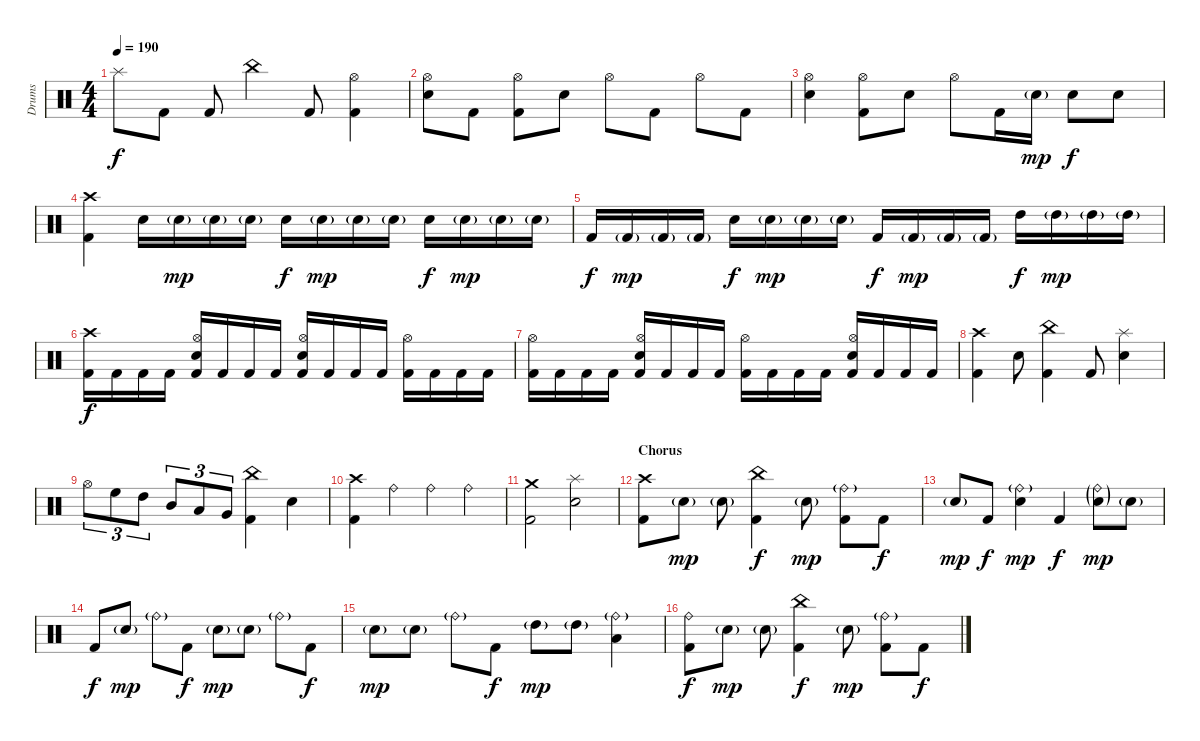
\track ("Drums" "Drums") {instrument percussion}
\staff {score}
\articulation defaults
\ts (4 4)
\tempo 190
\clef neutral
\ks c "Splash (hit)".8{dy f} "Kick (hit) 2".8 "Kick (hit) 2".8 "China (hit)".4 "Kick (hit) 2".8
("Hi-Hat (open)" "Kick (hit) 2").4 |
("Hi-Hat (open)" "Snare (hit) 2").8 "Kick (hit) 2".8 ("Hi-Hat (open)" "Kick (hit) 2").8 "Snare (hit) 2".8 "Hi-Hat (open)".8 "Kick (hit) 2".8 "Hi-Hat (open)".8 "Kick (hit) 2".8 |
("Hi-Hat (open)" "Snare (hit) 2").4 ("Hi-Hat (open)" "Kick (hit) 2").8 "Snare (hit) 2".8 "Hi-Hat (open)".8 "Kick (hit) 2".16 "Snare (hit) 2"{g}.16{dy mp} "Snare (hit) 2".8{dy f} "Snare (hit) 2".8 |
("Crash high (hit)" "Kick (hit) 2").4 "Snare (hit) 2".16 "Snare (hit) 2"{g}.16{dy mp} "Snare (hit) 2"{g}.16 "Snare (hit) 2"{g}.16 "Snare (hit) 2".16{dy f} "Snare (hit) 2"{g}.16{dy mp} "Snare (hit) 2"{g}.16 "Snare (hit) 2"{g}.16 "Snare (hit) 2".16{dy f} "Snare (hit) 2"{g}.16{dy mp} "Snare (hit) 2"{g}.16 "Snare (hit) 2"{g}.16 |
"Kick (hit) 2".16{dy f} "Kick (hit) 2"{g}.16{dy mp} "Kick (hit) 2"{g}.16 "Kick (hit) 2"{g}.16 "Snare (hit) 2".16{dy f} "Snare (hit) 2"{g}.16{dy mp} "Snare (hit) 2"{g}.16 "Snare (hit) 2"{g}.16 "Kick (hit) 2".16{dy f} "Kick (hit) 2"{g}.16{dy mp} "Kick (hit) 2"{g}.16 "Kick (hit) 2"{g}.16 "High Tom (hit)".16{dy f} "High Tom (hit)"{g}.16{dy mp} "High Tom (hit)"{g}.16 "High Tom (hit)"{g}.16 |
("Crash high (hit)" "Kick (hit) 2").16{dy f} "Kick (hit) 2".16 "Kick (hit) 2".16 "Kick (hit) 2".16 ("Hi-Hat (open)" "Snare (hit) 2" "Kick (hit) 2").16 "Kick (hit) 2".16 "Kick (hit) 2".16 "Kick (hit) 2".16 ("Hi-Hat (open)" "Snare (hit) 2" "Kick (hit) 2").16 "Kick (hit) 2".16 "Kick (hit) 2".16 "Kick (hit) 2".16 ("Hi-Hat (open)" "Kick (hit) 2").16 "Kick (hit) 2".16 "Kick (hit) 2".16 "Kick (hit) 2".16 |
("Hi-Hat (open)" "Kick (hit) 2").16 "Kick (hit) 2".16 "Kick (hit) 2".16 "Kick (hit) 2".16 ("Hi-Hat (open)" "Snare (hit) 2" "Kick (hit) 2").16 "Kick (hit) 2".16 "Kick (hit) 2".16 "Kick (hit) 2".16 ("Hi-Hat (open)" "Kick (hit) 2").16 "Kick (hit) 2".16 "Kick (hit) 2".16 "Kick (hit) 2".16 ("Hi-Hat (open)" "Snare (hit) 2" "Kick (hit) 2").16 "Kick (hit) 2".16 "Kick (hit) 2".16 "Kick (hit) 2".16 |
("Crash high (hit)" "Kick (hit) 2").4 "Snare (hit) 2".8 ("China (hit)" "Kick (hit) 2").4 "Kick (hit) 2".8 ("Splash (hit)" "Snare (hit) 2").4 |
"Hi-Hat (open)".8{tu (3 2)} "High Floor Tom (hit)".8{tu (3 2)} "High Tom (hit)".8{tu (3 2)} "Mid Tom (hit)".8{tu (3 2)} "Low Tom (hit)".8{tu (3 2)} "Very Low Tom (hit)".8{tu (3 2)} ("China (hit)" "Kick (hit) 2").4 "Snare (hit) 2".4 |
("Crash high (hit)" "Kick (hit) 2").4 "Ride (bell)".4 "Ride (bell)".4 "Ride (bell)".4 |
("Crash medium (hit)" "Kick (hit) 2").2 ("Splash (hit)" "Snare (hit) 2").2 |
\section ("" "Chorus")
("Crash high (hit)" "Kick (hit) 2").8 "Snare (hit) 2"{g}.8{dy mp} "Snare (hit) 2"{g}.8 ("China (hit)" "Kick (hit) 2").4{dy f} "Snare (hit) 2"{g}.8{dy mp} ("Ride (bell)"{g} "Kick (hit) 2").8 "Kick (hit) 2".8{dy f} |
"Snare (hit) 2"{g}.8{dy mp} "Kick (hit) 2".8{dy f} ("Ride (bell)"{g} "Snare (hit) 2").4{dy mp} "Kick (hit) 2".4{dy f} ("Ride (bell)"{g} "Snare (hit) 2"{g}).8{dy mp} "Snare (hit) 2"{g}.8 |
"Kick (hit) 2".8{dy f} "Snare (hit) 2"{g}.8{dy mp} "Ride (bell)"{g}.8 "Kick (hit) 2".8{dy f} "Snare (hit) 2"{g}.8{dy mp} "Snare (hit) 2"{g}.8 "Ride (bell)"{g}.8 "Kick (hit) 2".8{dy f} |
"Snare (hit) 2"{g}.8{dy mp} "Snare (hit) 2"{g}.8 "Ride (bell)"{g}.8 "Kick (hit) 2".8{dy f} "High Tom (hit)"{g}.8{dy mp} "High Tom (hit)"{g}.8 ("Ride (bell)"{g} "Low Tom (hit)").4 |
("Ride (bell)" "Kick (hit) 2").8{dy f} "Snare (hit) 2"{g}.8{dy mp} "Snare (hit) 2"{g}.8 ("China (hit)" "Kick (hit) 2").4{dy f} "Snare (hit) 2"{g}.8{dy mp} ("Ride (bell)"{g} "Kick (hit) 2").8 "Kick (hit) 2".8{dy f}
